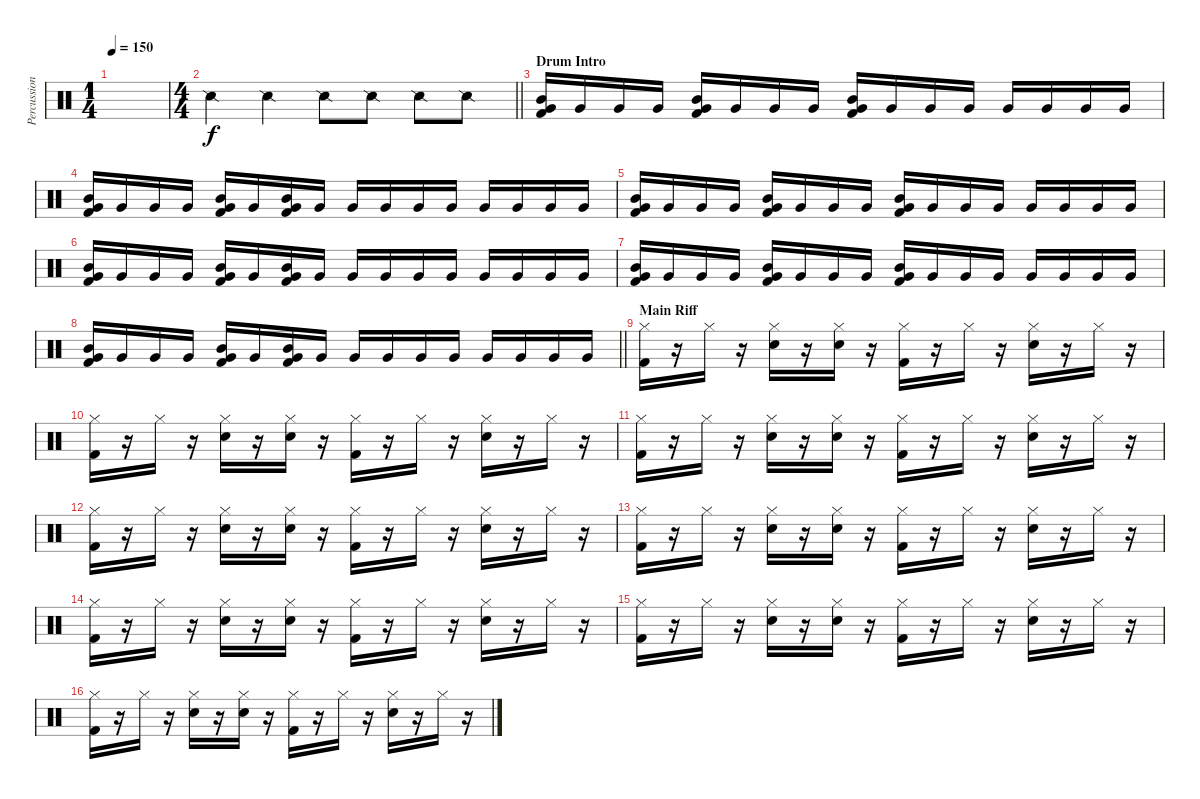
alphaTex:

\track ("Percussion" "Percussion") {instrument percussion}
\staff {score}
\articulation defaults
\ts (1 4)
\tempo 150
\clef neutral
\ks c
|
\ts (4 4)
\barLineRight lightlight "Snare (side stick) 2".4 "Snare (side stick) 2".4 "Snare (side stick) 2".8 "Snare (side stick) 2".8 "Snare (side stick) 2".8 "Snare (side stick) 2".8
|
\section ("" "Drum Intro")
("Mid Tom (hit)" "Very Low Tom (hit)" "Kick (hit) 2").16 "Very Low Tom (hit)".16 "Very Low Tom (hit)".16 "Very Low Tom (hit)".16 ("Mid Tom (hit)" "Very Low Tom (hit)" "Kick (hit) 2").16 "Very Low Tom (hit)".16 "Very Low Tom (hit)".16 "Very Low Tom (hit)".16 ("Mid Tom (hit)" "Very Low Tom (hit)" "Kick (hit) 2").16 "Very Low Tom (hit)".16 "Very Low Tom (hit)".16 "Very Low Tom (hit)".16 "Very Low Tom (hit)".16 "Very Low Tom (hit)".16 "Very Low Tom (hit)".16 "Very Low Tom (hit)".16 |
("Mid Tom (hit)" "Very Low Tom (hit)" "Kick (hit) 2").16 "Very Low Tom (hit)".16 "Very Low Tom (hit)".16 "Very Low Tom (hit)".16 ("Mid Tom (hit)" "Very Low Tom (hit)" "Kick (hit) 2").16 "Very Low Tom (hit)".16 ("Mid Tom (hit)" "Very Low Tom (hit)" "Kick (hit) 2").16 "Very Low Tom (hit)".16 "Very Low Tom (hit)".16 "Very Low Tom (hit)".16 "Very Low Tom (hit)".16 "Very Low Tom (hit)".16 "Very Low Tom (hit)".16 "Very Low Tom (hit)".16 "Very Low Tom (hit)".16 "Very Low Tom (hit)".16 |
("Mid Tom (hit)" "Very Low Tom (hit)" "Kick (hit) 2").16 "Very Low Tom (hit)".16 "Very Low Tom (hit)".16 "Very Low Tom (hit)".16 ("Mid Tom (hit)" "Very Low Tom (hit)" "Kick (hit) 2").16 "Very Low Tom (hit)".16 "Very Low Tom (hit)".16 "Very Low Tom (hit)".16 ("Mid Tom (hit)" "Very Low Tom (hit)" "Kick (hit) 2").16 "Very Low Tom (hit)".16 "Very Low Tom (hit)".16 "Very Low Tom (hit)".16 "Very Low Tom (hit)".16 "Very Low Tom (hit)".16 "Very Low Tom (hit)".16 "Very Low Tom (hit)".16 |
("Mid Tom (hit)" "Very Low Tom (hit)" "Kick (hit) 2").16 "Very Low Tom (hit)".16 "Very Low Tom (hit)".16 "Very Low Tom (hit)".16 ("Mid Tom (hit)" "Very Low Tom (hit)" "Kick (hit) 2").16 "Very Low Tom (hit)".16 ("Mid Tom (hit)" "Very Low Tom (hit)" "Kick (hit) 2").16 "Very Low Tom (hit)".16 "Very Low Tom (hit)".16 "Very Low Tom (hit)".16 "Very Low Tom (hit)".16 "Very Low Tom (hit)".16 "Very Low Tom (hit)".16 "Very Low Tom (hit)".16 "Very Low Tom (hit)".16 "Very Low Tom (hit)".16 |
("Mid Tom (hit)" "Very Low Tom (hit)" "Kick (hit) 2").16 "Very Low Tom (hit)".16 "Very Low Tom (hit)".16 "Very Low Tom (hit)".16 ("Mid Tom (hit)" "Very Low Tom (hit)" "Kick (hit) 2").16 "Very Low Tom (hit)".16 "Very Low Tom (hit)".16 "Very Low Tom (hit)".16 ("Mid Tom (hit)" "Very Low Tom (hit)" "Kick (hit) 2").16 "Very Low Tom (hit)".16 "Very Low Tom (hit)".16 "Very Low Tom (hit)".16 "Very Low Tom (hit)".16 "Very Low Tom (hit)".16 "Very Low Tom (hit)".16 "Very Low Tom (hit)".16 |
\barLineRight lightlight
("Mid Tom (hit)" "Very Low Tom (hit)" "Kick (hit) 2").16 "Very Low Tom (hit)".16 "Very Low Tom (hit)".16 "Very Low Tom (hit)".16 ("Mid Tom (hit)" "Very Low Tom (hit)" "Kick (hit) 2").16 "Very Low Tom (hit)".16 ("Mid Tom (hit)" "Very Low Tom (hit)" "Kick (hit) 2").16 "Very Low Tom (hit)".16 "Very Low Tom (hit)".16 "Very Low Tom (hit)".16 "Very Low Tom (hit)".16 "Very Low Tom (hit)".16 "Very Low Tom (hit)".16 "Very Low Tom (hit)".16 "Very Low Tom (hit)".16 "Very Low Tom (hit)".16 |
\section ("" "Main Riff")
("Hi-Hat (closed)" "Kick (hit) 2").16 r.16 "Hi-Hat (closed)".16 r.16 ("Hi-Hat (closed)" "Snare (hit) 2").16 r.16 ("Hi-Hat (closed)" "Snare (hit) 2").16 r.16 ("Hi-Hat (closed)" "Kick (hit) 2").16 r.16 "Hi-Hat (closed)".16 r.16 ("Hi-Hat (closed)" "Snare (hit) 2").16 r.16 "Hi-Hat (closed)".16 r.16 |
("Hi-Hat (closed)" "Kick (hit) 2").16 r.16 "Hi-Hat (closed)".16 r.16 ("Hi-Hat (closed)" "Snare (hit) 2").16 r.16 ("Hi-Hat (closed)" "Snare (hit) 2").16 r.16 ("Hi-Hat (closed)" "Kick (hit) 2").16 r.16 "Hi-Hat (closed)".16 r.16 ("Hi-Hat (closed)" "Snare (hit) 2").16 r.16 "Hi-Hat (closed)".16 r.16 |
("Hi-Hat (closed)" "Kick (hit) 2").16 r.16 "Hi-Hat (closed)".16 r.16 ("Hi-Hat (closed)" "Snare (hit) 2").16 r.16 ("Hi-Hat (closed)" "Snare (hit) 2").16 r.16 ("Hi-Hat (closed)" "Kick (hit) 2").16 r.16 "Hi-Hat (closed)".16 r.16 ("Hi-Hat (closed)" "Snare (hit) 2").16 r.16 "Hi-Hat (closed)".16 r.16 |
("Hi-Hat (closed)" "Kick (hit) 2").16 r.16 "Hi-Hat (closed)".16 r.16 ("Hi-Hat (closed)" "Snare (hit) 2").16 r.16 ("Hi-Hat (closed)" "Snare (hit) 2").16 r.16 ("Hi-Hat (closed)" "Kick (hit) 2").16 r.16 "Hi-Hat (closed)".16 r.16 ("Hi-Hat (closed)" "Snare (hit) 2").16 r.16 "Hi-Hat (closed)".16 r.16 |
("Hi-Hat (closed)" "Kick (hit) 2").16 r.16 "Hi-Hat (closed)".16 r.16 ("Hi-Hat (closed)" "Snare (hit) 2").16 r.16 ("Hi-Hat (closed)" "Snare (hit) 2").16 r.16 ("Hi-Hat (closed)" "Kick (hit) 2").16 r.16 "Hi-Hat (closed)".16 r.16 ("Hi-Hat (closed)" "Snare (hit) 2").16 r.16 "Hi-Hat (closed)".16 r.16 |
("Hi-Hat (closed)" "Kick (hit) 2").16 r.16 "Hi-Hat (closed)".16 r.16 ("Hi-Hat (closed)" "Snare (hit) 2").16 r.16 ("Hi-Hat (closed)" "Snare (hit) 2").16 r.16 ("Hi-Hat (closed)" "Kick (hit) 2").16 r.16 "Hi-Hat (closed)".16 r.16 ("Hi-Hat (closed)" "Snare (hit) 2").16 r.16 "Hi-Hat (closed)".16 r.16 |
("Hi-Hat (closed)" "Kick (hit) 2").16 r.16 "Hi-Hat (closed)".16 r.16 ("Hi-Hat (closed)" "Snare (hit) 2").16 r.16 ("Hi-Hat (closed)" "Snare (hit) 2").16 r.16 ("Hi-Hat (closed)" "Kick (hit) 2").16 r.16 "Hi-Hat (closed)".16 r.16 ("Hi-Hat (closed)" "Snare (hit) 2").16 r.16 "Hi-Hat (closed)".16 r.16 |
("Hi-Hat (closed)" "Kick (hit) 2").16 r.16 "Hi-Hat (closed)".16 r.16 ("Hi-Hat (closed)" "Snare (hit) 2").16 r.16 ("Hi-Hat (closed)" "Snare (hit) 2").16 r.16 ("Hi-Hat (closed)" "Kick (hit) 2").16 r.16 "Hi-Hat (closed)".16 r.16 ("Hi-Hat (closed)" "Snare (hit) 2").16 r.16 "Hi-Hat (closed)".16 r.16
